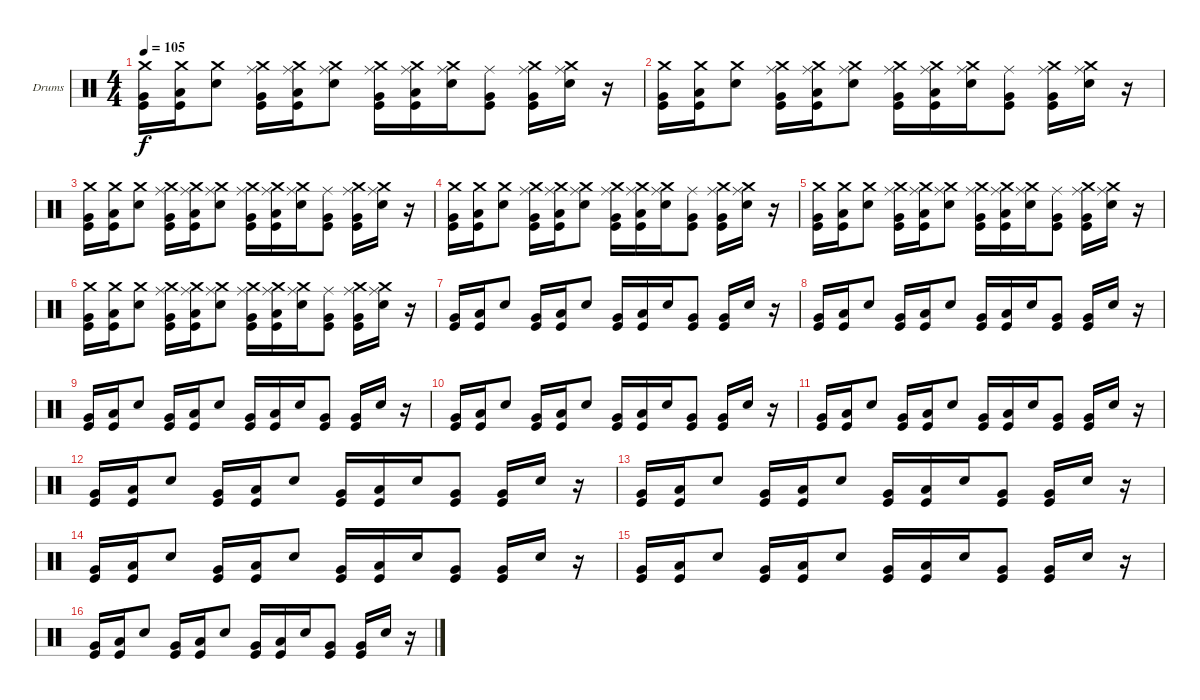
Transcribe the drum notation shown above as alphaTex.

\defaultSystemsLayout 4
\bracketExtendMode groupsimilarinstruments
\firstSystemTrackNameOrientation horizontal
\otherSystemsTrackNameOrientation horizontal
\track ("Steve" "Drums") {instrument percussion}
\staff {score}
\articulation defaults
\ts (4 4)
\tempo 105
\clef neutral
\ks c
("Very Low Tom (hit)" "Crash medium (hit)" "Kick (hit)").16{dy f} ("Low Tom (hit)" "Crash medium (hit)" "Kick (hit)").16 ("Snare (hit) 2" "Crash medium (hit)").8 ("Very Low Tom (hit)" "Ride (middle)" "Kick (hit)" "Crash medium (hit)").16 ("Low Tom (hit)" "Ride (middle)" "Kick (hit)" "Crash medium (hit)").16 ("Snare (hit) 2" "Ride (middle)" "Crash medium (hit)").8 ("Very Low Tom (hit)" "Ride (middle)" "Kick (hit)" "Crash medium (hit)").16 ("Low Tom (hit)" "Ride (middle)" "Kick (hit)" "Crash medium (hit)").16 ("Snare (hit) 2" "Ride (middle)" "Crash medium (hit)").16 ("Very Low Tom (hit)" "Ride (middle)" "Kick (hit)").8 ("Very Low Tom (hit)" "Ride (middle)" "Kick (hit)" "Crash medium (hit)").16 ("Snare (hit) 2" "Ride (middle)" "Crash medium (hit)").16 r.16 |
("Very Low Tom (hit)" "Crash medium (hit)" "Kick (hit)").16 ("Low Tom (hit)" "Crash medium (hit)" "Kick (hit)").16 ("Snare (hit) 2" "Crash medium (hit)").8 ("Very Low Tom (hit)" "Ride (middle)" "Kick (hit)" "Crash medium (hit)").16 ("Low Tom (hit)" "Ride (middle)" "Kick (hit)" "Crash medium (hit)").16 ("Snare (hit) 2" "Ride (middle)" "Crash medium (hit)").8 ("Very Low Tom (hit)" "Ride (middle)" "Kick (hit)" "Crash medium (hit)").16 ("Low Tom (hit)" "Ride (middle)" "Kick (hit)" "Crash medium (hit)").16 ("Snare (hit) 2" "Ride (middle)" "Crash medium (hit)").16 ("Very Low Tom (hit)" "Ride (middle)" "Kick (hit)").8 ("Very Low Tom (hit)" "Ride (middle)" "Kick (hit)" "Crash medium (hit)").16 ("Snare (hit) 2" "Ride (middle)" "Crash medium (hit)").16 r.16 |
("Very Low Tom (hit)" "Crash medium (hit)" "Kick (hit)").16 ("Low Tom (hit)" "Crash medium (hit)" "Kick (hit)").16 ("Snare (hit) 2" "Crash medium (hit)").8 ("Very Low Tom (hit)" "Ride (middle)" "Kick (hit)" "Crash medium (hit)").16 ("Low Tom (hit)" "Ride (middle)" "Kick (hit)" "Crash medium (hit)").16 ("Snare (hit) 2" "Ride (middle)" "Crash medium (hit)").8 ("Very Low Tom (hit)" "Ride (middle)" "Kick (hit)" "Crash medium (hit)").16 ("Low Tom (hit)" "Ride (middle)" "Kick (hit)" "Crash medium (hit)").16 ("Snare (hit) 2" "Ride (middle)" "Crash medium (hit)").16 ("Very Low Tom (hit)" "Ride (middle)" "Kick (hit)").8 ("Very Low Tom (hit)" "Ride (middle)" "Kick (hit)" "Crash medium (hit)").16 ("Snare (hit) 2" "Ride (middle)" "Crash medium (hit)").16 r.16 |
("Very Low Tom (hit)" "Crash medium (hit)" "Kick (hit)").16 ("Low Tom (hit)" "Crash medium (hit)" "Kick (hit)").16 ("Snare (hit) 2" "Crash medium (hit)").8 ("Very Low Tom (hit)" "Ride (middle)" "Kick (hit)" "Crash medium (hit)").16 ("Low Tom (hit)" "Ride (middle)" "Kick (hit)" "Crash medium (hit)").16 ("Snare (hit) 2" "Ride (middle)" "Crash medium (hit)").8 ("Very Low Tom (hit)" "Ride (middle)" "Kick (hit)" "Crash medium (hit)").16 ("Low Tom (hit)" "Ride (middle)" "Kick (hit)" "Crash medium (hit)").16 ("Snare (hit) 2" "Ride (middle)" "Crash medium (hit)").16 ("Very Low Tom (hit)" "Ride (middle)" "Kick (hit)").8 ("Very Low Tom (hit)" "Ride (middle)" "Kick (hit)" "Crash medium (hit)").16 ("Snare (hit) 2" "Ride (middle)" "Crash medium (hit)").16 r.16 |
("Very Low Tom (hit)" "Crash medium (hit)" "Kick (hit)").16 ("Low Tom (hit)" "Crash medium (hit)" "Kick (hit)").16 ("Snare (hit) 2" "Crash medium (hit)").8 ("Very Low Tom (hit)" "Ride (middle)" "Kick (hit)" "Crash medium (hit)").16 ("Low Tom (hit)" "Ride (middle)" "Kick (hit)" "Crash medium (hit)").16 ("Snare (hit) 2" "Ride (middle)" "Crash medium (hit)").8 ("Very Low Tom (hit)" "Ride (middle)" "Kick (hit)" "Crash medium (hit)").16 ("Low Tom (hit)" "Ride (middle)" "Kick (hit)" "Crash medium (hit)").16 ("Snare (hit) 2" "Ride (middle)" "Crash medium (hit)").16 ("Very Low Tom (hit)" "Ride (middle)" "Kick (hit)").8 ("Very Low Tom (hit)" "Ride (middle)" "Kick (hit)" "Crash medium (hit)").16 ("Snare (hit) 2" "Ride (middle)" "Crash medium (hit)").16 r.16 |
("Very Low Tom (hit)" "Crash medium (hit)" "Kick (hit)").16 ("Low Tom (hit)" "Crash medium (hit)" "Kick (hit)").16 ("Snare (hit) 2" "Crash medium (hit)").8 ("Very Low Tom (hit)" "Ride (middle)" "Kick (hit)" "Crash medium (hit)").16 ("Low Tom (hit)" "Ride (middle)" "Kick (hit)" "Crash medium (hit)").16 ("Snare (hit) 2" "Ride (middle)" "Crash medium (hit)").8 ("Very Low Tom (hit)" "Ride (middle)" "Kick (hit)" "Crash medium (hit)").16 ("Low Tom (hit)" "Ride (middle)" "Kick (hit)" "Crash medium (hit)").16 ("Snare (hit) 2" "Ride (middle)" "Crash medium (hit)").16 ("Very Low Tom (hit)" "Ride (middle)" "Kick (hit)").8 ("Very Low Tom (hit)" "Ride (middle)" "Kick (hit)" "Crash medium (hit)").16 ("Snare (hit) 2" "Ride (middle)" "Crash medium (hit)").16 r.16 |
("Very Low Tom (hit)" "Kick (hit)").16 ("Low Tom (hit)" "Kick (hit)").16 "Snare (hit) 2".8 ("Very Low Tom (hit)" "Kick (hit)").16 ("Low Tom (hit)" "Kick (hit)").16 "Snare (hit) 2".8 ("Very Low Tom (hit)" "Kick (hit)").16 ("Low Tom (hit)" "Kick (hit)").16 "Snare (hit) 2".16 ("Very Low Tom (hit)" "Kick (hit)").8 ("Very Low Tom (hit)" "Kick (hit)").16 "Snare (hit) 2".16 r.16 |
("Very Low Tom (hit)" "Kick (hit)").16 ("Low Tom (hit)" "Kick (hit)").16 "Snare (hit) 2".8 ("Very Low Tom (hit)" "Kick (hit)").16 ("Low Tom (hit)" "Kick (hit)").16 "Snare (hit) 2".8 ("Very Low Tom (hit)" "Kick (hit)").16 ("Low Tom (hit)" "Kick (hit)").16 "Snare (hit) 2".16 ("Very Low Tom (hit)" "Kick (hit)").8 ("Very Low Tom (hit)" "Kick (hit)").16 "Snare (hit) 2".16 r.16 |
("Very Low Tom (hit)" "Kick (hit)").16 ("Low Tom (hit)" "Kick (hit)").16 "Snare (hit) 2".8 ("Very Low Tom (hit)" "Kick (hit)").16 ("Low Tom (hit)" "Kick (hit)").16 "Snare (hit) 2".8 ("Very Low Tom (hit)" "Kick (hit)").16 ("Low Tom (hit)" "Kick (hit)").16 "Snare (hit) 2".16 ("Very Low Tom (hit)" "Kick (hit)").8 ("Very Low Tom (hit)" "Kick (hit)").16 "Snare (hit) 2".16 r.16 |
("Very Low Tom (hit)" "Kick (hit)").16 ("Low Tom (hit)" "Kick (hit)").16 "Snare (hit) 2".8 ("Very Low Tom (hit)" "Kick (hit)").16 ("Low Tom (hit)" "Kick (hit)").16 "Snare (hit) 2".8 ("Very Low Tom (hit)" "Kick (hit)").16 ("Low Tom (hit)" "Kick (hit)").16 "Snare (hit) 2".16 ("Very Low Tom (hit)" "Kick (hit)").8 ("Very Low Tom (hit)" "Kick (hit)").16 "Snare (hit) 2".16 r.16 |
("Very Low Tom (hit)" "Kick (hit)").16 ("Low Tom (hit)" "Kick (hit)").16 "Snare (hit) 2".8 ("Very Low Tom (hit)" "Kick (hit)").16 ("Low Tom (hit)" "Kick (hit)").16 "Snare (hit) 2".8 ("Very Low Tom (hit)" "Kick (hit)").16 ("Low Tom (hit)" "Kick (hit)").16 "Snare (hit) 2".16 ("Very Low Tom (hit)" "Kick (hit)").8 ("Very Low Tom (hit)" "Kick (hit)").16 "Snare (hit) 2".16 r.16 |
("Very Low Tom (hit)" "Kick (hit)").16 ("Low Tom (hit)" "Kick (hit)").16 "Snare (hit) 2".8 ("Very Low Tom (hit)" "Kick (hit)").16 ("Low Tom (hit)" "Kick (hit)").16 "Snare (hit) 2".8 ("Very Low Tom (hit)" "Kick (hit)").16 ("Low Tom (hit)" "Kick (hit)").16 "Snare (hit) 2".16 ("Very Low Tom (hit)" "Kick (hit)").8 ("Very Low Tom (hit)" "Kick (hit)").16 "Snare (hit) 2".16 r.16 |
("Very Low Tom (hit)" "Kick (hit)").16 ("Low Tom (hit)" "Kick (hit)").16 "Snare (hit) 2".8 ("Very Low Tom (hit)" "Kick (hit)").16 ("Low Tom (hit)" "Kick (hit)").16 "Snare (hit) 2".8 ("Very Low Tom (hit)" "Kick (hit)").16 ("Low Tom (hit)" "Kick (hit)").16 "Snare (hit) 2".16 ("Very Low Tom (hit)" "Kick (hit)").8 ("Very Low Tom (hit)" "Kick (hit)").16 "Snare (hit) 2".16 r.16 |
("Very Low Tom (hit)" "Kick (hit)").16 ("Low Tom (hit)" "Kick (hit)").16 "Snare (hit) 2".8 ("Very Low Tom (hit)" "Kick (hit)").16 ("Low Tom (hit)" "Kick (hit)").16 "Snare (hit) 2".8 ("Very Low Tom (hit)" "Kick (hit)").16 ("Low Tom (hit)" "Kick (hit)").16 "Snare (hit) 2".16 ("Very Low Tom (hit)" "Kick (hit)").8 ("Very Low Tom (hit)" "Kick (hit)").16 "Snare (hit) 2".16 r.16 |
("Very Low Tom (hit)" "Kick (hit)").16 ("Low Tom (hit)" "Kick (hit)").16 "Snare (hit) 2".8 ("Very Low Tom (hit)" "Kick (hit)").16 ("Low Tom (hit)" "Kick (hit)").16 "Snare (hit) 2".8 ("Very Low Tom (hit)" "Kick (hit)").16 ("Low Tom (hit)" "Kick (hit)").16 "Snare (hit) 2".16 ("Very Low Tom (hit)" "Kick (hit)").8 ("Very Low Tom (hit)" "Kick (hit)").16 "Snare (hit) 2".16 r.16 |
("Very Low Tom (hit)" "Kick (hit)").16 ("Low Tom (hit)" "Kick (hit)").16 "Snare (hit) 2".8 ("Very Low Tom (hit)" "Kick (hit)").16 ("Low Tom (hit)" "Kick (hit)").16 "Snare (hit) 2".8 ("Very Low Tom (hit)" "Kick (hit)").16 ("Low Tom (hit)" "Kick (hit)").16 "Snare (hit) 2".16 ("Very Low Tom (hit)" "Kick (hit)").8 ("Very Low Tom (hit)" "Kick (hit)").16 "Snare (hit) 2".16 r.16
